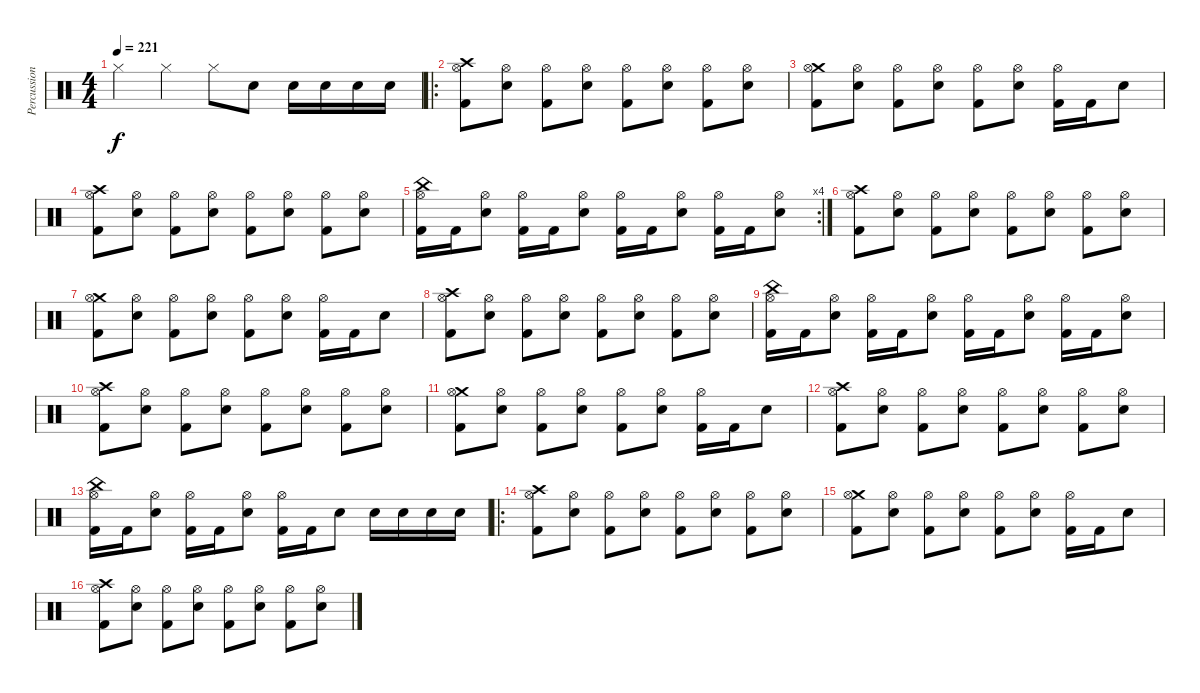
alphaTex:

\track ("Percussion" "Percussion") {instrument percussion}
\staff {score}
\articulation defaults
\ts (4 4)
\tempo 221
\clef neutral
\ks c "Hi-Hat (closed)".4{dy f} "Hi-Hat (closed)".4 "Hi-Hat (closed)".8 "Electric Snare (hit)".8 "Electric Snare (hit)".16 "Electric Snare (hit)".16 "Electric Snare (hit)".16 "Electric Snare (hit)".16
|
\ro
("Crash high (hit)" "Kick (hit) 2" "Hi-Hat (open)").8 ("Electric Snare (hit)" "Hi-Hat (open)").8 ("Kick (hit) 2" "Hi-Hat (open)").8 ("Electric Snare (hit)" "Hi-Hat (open)").8 ("Kick (hit) 2" "Hi-Hat (open)").8 ("Electric Snare (hit)" "Hi-Hat (open)").8 ("Kick (hit) 2" "Hi-Hat (open)").8 ("Electric Snare (hit)" "Hi-Hat (open)").8 |
("Crash medium (hit)" "Kick (hit) 2" "Hi-Hat (open)").8 ("Electric Snare (hit)" "Hi-Hat (open)").8 ("Kick (hit) 2" "Hi-Hat (open)").8 ("Electric Snare (hit)" "Hi-Hat (open)").8 ("Kick (hit) 2" "Hi-Hat (open)").8 ("Electric Snare (hit)" "Hi-Hat (open)").8 ("Kick (hit) 2" "Hi-Hat (open)").16 "Kick (hit) 2".16 "Electric Snare (hit)".8 |
("Crash high (hit)" "Kick (hit) 2" "Hi-Hat (open)").8 ("Electric Snare (hit)" "Hi-Hat (open)").8 ("Kick (hit) 2" "Hi-Hat (open)").8 ("Electric Snare (hit)" "Hi-Hat (open)").8 ("Kick (hit) 2" "Hi-Hat (open)").8 ("Electric Snare (hit)" "Hi-Hat (open)").8 ("Kick (hit) 2" "Hi-Hat (open)").8 ("Electric Snare (hit)" "Hi-Hat (open)").8 |
\rc 4
("China (hit)" "Kick (hit) 2" "Hi-Hat (open)").16 "Kick (hit) 2".16 ("Electric Snare (hit)" "Hi-Hat (open)").8 ("Kick (hit) 2" "Hi-Hat (open)").16 "Kick (hit) 2".16 ("Electric Snare (hit)" "Hi-Hat (open)").8 ("Kick (hit) 2" "Hi-Hat (open)").16 "Kick (hit) 2".16 ("Electric Snare (hit)" "Hi-Hat (open)").8 ("Kick (hit) 2" "Hi-Hat (open)").16 "Kick (hit) 2".16 ("Electric Snare (hit)" "Hi-Hat (open)").8 |
("Crash high (hit)" "Kick (hit) 2" "Hi-Hat (open)").8 ("Electric Snare (hit)" "Hi-Hat (open)").8 ("Kick (hit) 2" "Hi-Hat (open)").8 ("Electric Snare (hit)" "Hi-Hat (open)").8 ("Kick (hit) 2" "Hi-Hat (open)").8 ("Electric Snare (hit)" "Hi-Hat (open)").8 ("Kick (hit) 2" "Hi-Hat (open)").8 ("Electric Snare (hit)" "Hi-Hat (open)").8 |
("Crash medium (hit)" "Kick (hit) 2" "Hi-Hat (open)").8 ("Electric Snare (hit)" "Hi-Hat (open)").8 ("Kick (hit) 2" "Hi-Hat (open)").8 ("Electric Snare (hit)" "Hi-Hat (open)").8 ("Kick (hit) 2" "Hi-Hat (open)").8 ("Electric Snare (hit)" "Hi-Hat (open)").8 ("Kick (hit) 2" "Hi-Hat (open)").16 "Kick (hit) 2".16 "Electric Snare (hit)".8 |
("Crash high (hit)" "Kick (hit) 2" "Hi-Hat (open)").8 ("Electric Snare (hit)" "Hi-Hat (open)").8 ("Kick (hit) 2" "Hi-Hat (open)").8 ("Electric Snare (hit)" "Hi-Hat (open)").8 ("Kick (hit) 2" "Hi-Hat (open)").8 ("Electric Snare (hit)" "Hi-Hat (open)").8 ("Kick (hit) 2" "Hi-Hat (open)").8 ("Electric Snare (hit)" "Hi-Hat (open)").8 |
("China (hit)" "Kick (hit) 2" "Hi-Hat (open)").16 "Kick (hit) 2".16 ("Electric Snare (hit)" "Hi-Hat (open)").8 ("Kick (hit) 2" "Hi-Hat (open)").16 "Kick (hit) 2".16 ("Electric Snare (hit)" "Hi-Hat (open)").8 ("Kick (hit) 2" "Hi-Hat (open)").16 "Kick (hit) 2".16 ("Electric Snare (hit)" "Hi-Hat (open)").8 ("Kick (hit) 2" "Hi-Hat (open)").16 "Kick (hit) 2".16 ("Electric Snare (hit)" "Hi-Hat (open)").8 |
("Crash high (hit)" "Kick (hit) 2" "Hi-Hat (open)").8 ("Electric Snare (hit)" "Hi-Hat (open)").8 ("Kick (hit) 2" "Hi-Hat (open)").8 ("Electric Snare (hit)" "Hi-Hat (open)").8 ("Kick (hit) 2" "Hi-Hat (open)").8 ("Electric Snare (hit)" "Hi-Hat (open)").8 ("Kick (hit) 2" "Hi-Hat (open)").8 ("Electric Snare (hit)" "Hi-Hat (open)").8 |
("Crash medium (hit)" "Kick (hit) 2" "Hi-Hat (open)").8 ("Electric Snare (hit)" "Hi-Hat (open)").8 ("Kick (hit) 2" "Hi-Hat (open)").8 ("Electric Snare (hit)" "Hi-Hat (open)").8 ("Kick (hit) 2" "Hi-Hat (open)").8 ("Electric Snare (hit)" "Hi-Hat (open)").8 ("Kick (hit) 2" "Hi-Hat (open)").16 "Kick (hit) 2".16 "Electric Snare (hit)".8 |
("Crash high (hit)" "Kick (hit) 2" "Hi-Hat (open)").8 ("Electric Snare (hit)" "Hi-Hat (open)").8 ("Kick (hit) 2" "Hi-Hat (open)").8 ("Electric Snare (hit)" "Hi-Hat (open)").8 ("Kick (hit) 2" "Hi-Hat (open)").8 ("Electric Snare (hit)" "Hi-Hat (open)").8 ("Kick (hit) 2" "Hi-Hat (open)").8 ("Electric Snare (hit)" "Hi-Hat (open)").8 |
("China (hit)" "Kick (hit) 2" "Hi-Hat (open)").16 "Kick (hit) 2".16 ("Electric Snare (hit)" "Hi-Hat (open)").8 ("Kick (hit) 2" "Hi-Hat (open)").16 "Kick (hit) 2".16 ("Electric Snare (hit)" "Hi-Hat (open)").8 ("Kick (hit) 2" "Hi-Hat (open)").16 "Kick (hit) 2".16 "Electric Snare (hit)".8 "Electric Snare (hit)".16 "Electric Snare (hit)".16 "Electric Snare (hit)".16 "Electric Snare (hit)".16 |
\ro
("Crash high (hit)" "Kick (hit) 2" "Hi-Hat (open)").8 ("Electric Snare (hit)" "Hi-Hat (open)").8 ("Kick (hit) 2" "Hi-Hat (open)").8 ("Electric Snare (hit)" "Hi-Hat (open)").8 ("Kick (hit) 2" "Hi-Hat (open)").8 ("Electric Snare (hit)" "Hi-Hat (open)").8 ("Kick (hit) 2" "Hi-Hat (open)").8 ("Electric Snare (hit)" "Hi-Hat (open)").8 |
("Crash medium (hit)" "Kick (hit) 2" "Hi-Hat (open)").8 ("Electric Snare (hit)" "Hi-Hat (open)").8 ("Kick (hit) 2" "Hi-Hat (open)").8 ("Electric Snare (hit)" "Hi-Hat (open)").8 ("Kick (hit) 2" "Hi-Hat (open)").8 ("Electric Snare (hit)" "Hi-Hat (open)").8 ("Kick (hit) 2" "Hi-Hat (open)").16 "Kick (hit) 2".16 "Electric Snare (hit)".8 |
("Crash high (hit)" "Kick (hit) 2" "Hi-Hat (open)").8 ("Electric Snare (hit)" "Hi-Hat (open)").8 ("Kick (hit) 2" "Hi-Hat (open)").8 ("Electric Snare (hit)" "Hi-Hat (open)").8 ("Kick (hit) 2" "Hi-Hat (open)").8 ("Electric Snare (hit)" "Hi-Hat (open)").8 ("Kick (hit) 2" "Hi-Hat (open)").8 ("Electric Snare (hit)" "Hi-Hat (open)").8
